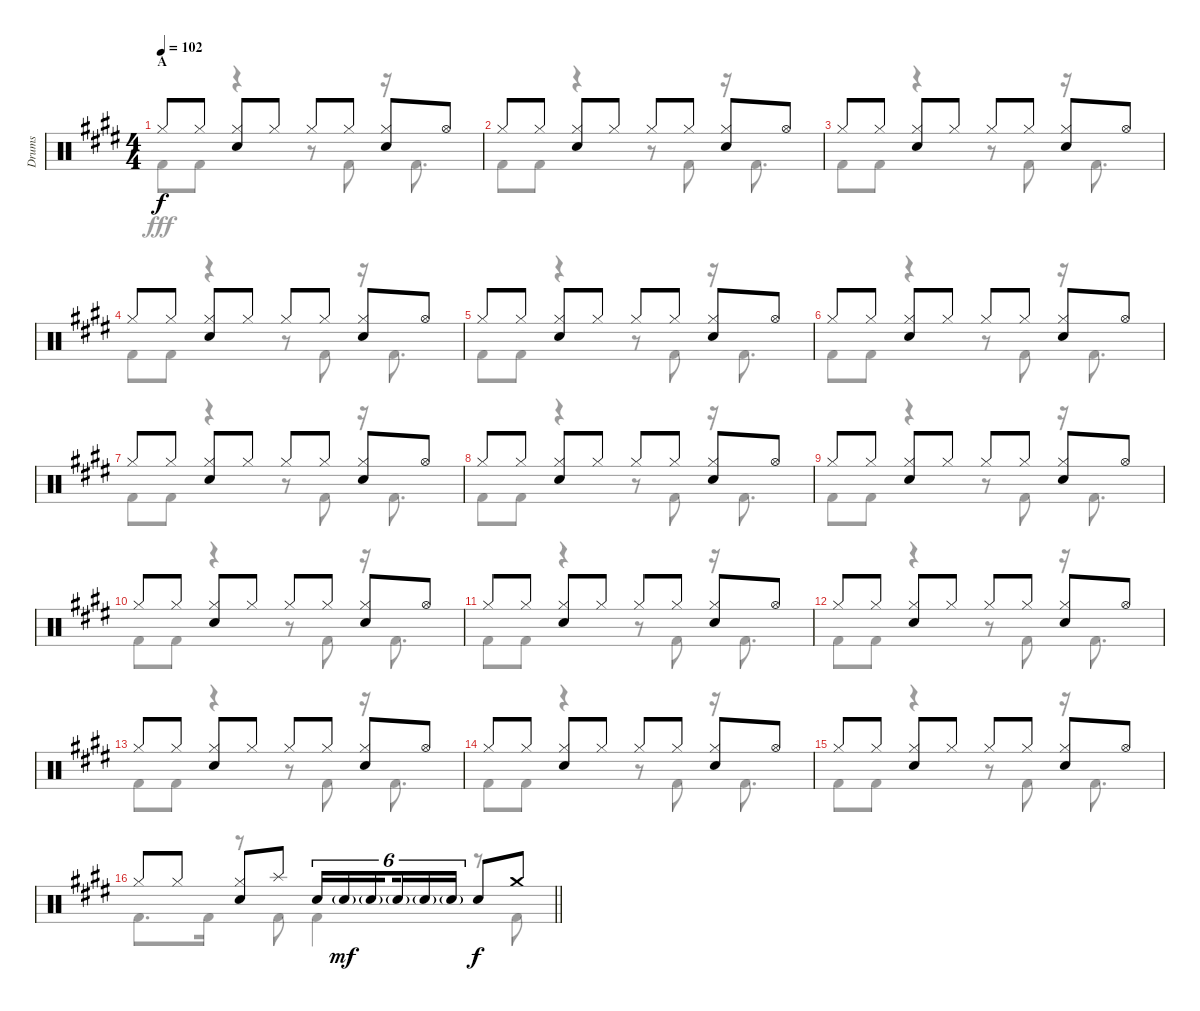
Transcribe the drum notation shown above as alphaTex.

\track ("Drums" "Drums") {instrument percussion}
\staff {score}
\articulation defaults
\voice
\ts (4 4)
\section ("" "A")
\tempo 102
\clef neutral
\ks e "Hi-Hat (closed)".8{dy f} "Hi-Hat (closed)".8
("Hi-Hat (closed)" "Snare (hit) 2").8 "Hi-Hat (closed)".8 "Hi-Hat (closed)".8 "Hi-Hat (closed)".8 ("Hi-Hat (closed)" "Snare (hit) 2").8 "Hi-Hat (open)".8 |
"Hi-Hat (closed)".8 "Hi-Hat (closed)".8 ("Hi-Hat (closed)" "Snare (hit) 2").8 "Hi-Hat (closed)".8 "Hi-Hat (closed)".8 "Hi-Hat (closed)".8 ("Hi-Hat (closed)" "Snare (hit) 2").8 "Hi-Hat (open)".8 |
"Hi-Hat (closed)".8 "Hi-Hat (closed)".8 ("Hi-Hat (closed)" "Snare (hit) 2").8 "Hi-Hat (closed)".8 "Hi-Hat (closed)".8 "Hi-Hat (closed)".8 ("Hi-Hat (closed)" "Snare (hit) 2").8 "Hi-Hat (open)".8 |
"Hi-Hat (closed)".8 "Hi-Hat (closed)".8 ("Hi-Hat (closed)" "Snare (hit) 2").8 "Hi-Hat (closed)".8 "Hi-Hat (closed)".8 "Hi-Hat (closed)".8 ("Hi-Hat (closed)" "Snare (hit) 2").8 "Hi-Hat (open)".8 |
"Hi-Hat (closed)".8 "Hi-Hat (closed)".8 ("Hi-Hat (closed)" "Snare (hit) 2").8 "Hi-Hat (closed)".8 "Hi-Hat (closed)".8 "Hi-Hat (closed)".8 ("Hi-Hat (closed)" "Snare (hit) 2").8 "Hi-Hat (open)".8 |
"Hi-Hat (closed)".8 "Hi-Hat (closed)".8 ("Hi-Hat (closed)" "Snare (hit) 2").8 "Hi-Hat (closed)".8 "Hi-Hat (closed)".8 "Hi-Hat (closed)".8 ("Hi-Hat (closed)" "Snare (hit) 2").8 "Hi-Hat (open)".8 |
"Hi-Hat (closed)".8 "Hi-Hat (closed)".8 ("Hi-Hat (closed)" "Snare (hit) 2").8 "Hi-Hat (closed)".8 "Hi-Hat (closed)".8 "Hi-Hat (closed)".8 ("Hi-Hat (closed)" "Snare (hit) 2").8 "Hi-Hat (open)".8 |
"Hi-Hat (closed)".8 "Hi-Hat (closed)".8 ("Hi-Hat (closed)" "Snare (hit) 2").8 "Hi-Hat (closed)".8 "Hi-Hat (closed)".8 "Hi-Hat (closed)".8 ("Hi-Hat (closed)" "Snare (hit) 2").8 "Hi-Hat (open)".8 |
"Hi-Hat (closed)".8 "Hi-Hat (closed)".8 ("Hi-Hat (closed)" "Snare (hit) 2").8 "Hi-Hat (closed)".8 "Hi-Hat (closed)".8 "Hi-Hat (closed)".8 ("Hi-Hat (closed)" "Snare (hit) 2").8 "Hi-Hat (open)".8 |
"Hi-Hat (closed)".8 "Hi-Hat (closed)".8 ("Hi-Hat (closed)" "Snare (hit) 2").8 "Hi-Hat (closed)".8 "Hi-Hat (closed)".8 "Hi-Hat (closed)".8 ("Hi-Hat (closed)" "Snare (hit) 2").8 "Hi-Hat (open)".8 |
"Hi-Hat (closed)".8 "Hi-Hat (closed)".8 ("Hi-Hat (closed)" "Snare (hit) 2").8 "Hi-Hat (closed)".8 "Hi-Hat (closed)".8 "Hi-Hat (closed)".8 ("Hi-Hat (closed)" "Snare (hit) 2").8 "Hi-Hat (open)".8 |
"Hi-Hat (closed)".8 "Hi-Hat (closed)".8 ("Hi-Hat (closed)" "Snare (hit) 2").8 "Hi-Hat (closed)".8 "Hi-Hat (closed)".8 "Hi-Hat (closed)".8 ("Hi-Hat (closed)" "Snare (hit) 2").8 "Hi-Hat (open)".8 |
"Hi-Hat (closed)".8 "Hi-Hat (closed)".8 ("Hi-Hat (closed)" "Snare (hit) 2").8 "Hi-Hat (closed)".8 "Hi-Hat (closed)".8 "Hi-Hat (closed)".8 ("Hi-Hat (closed)" "Snare (hit) 2").8 "Hi-Hat (open)".8 |
"Hi-Hat (closed)".8 "Hi-Hat (closed)".8 ("Hi-Hat (closed)" "Snare (hit) 2").8 "Hi-Hat (closed)".8 "Hi-Hat (closed)".8 "Hi-Hat (closed)".8 ("Hi-Hat (closed)" "Snare (hit) 2").8 "Hi-Hat (open)".8 |
"Hi-Hat (closed)".8 "Hi-Hat (closed)".8 ("Hi-Hat (closed)" "Snare (hit) 2").8 "Hi-Hat (closed)".8 "Hi-Hat (closed)".8 "Hi-Hat (closed)".8 ("Hi-Hat (closed)" "Snare (hit) 2").8 "Hi-Hat (open)".8 |
\barLineRight lightlight "Hi-Hat (closed)".8 "Hi-Hat (closed)".8
("Hi-Hat (closed)" "Snare (hit) 2").8 "Splash (hit)".8 "Snare (hit) 2".16{tu (6 4)} "Snare (hit) 2"{g}.16{tu (6 4) dy mf} "Snare (hit) 2"{g}.16{tu (6 4) beam splitsecondary} "Snare (hit) 2"{g}.16{tu (6 4)} "Snare (hit) 2"{g}.16{tu (6 4)} "Snare (hit) 2"{g}.16{tu (6 4)} "Snare (hit) 2".8{dy f} "Crash medium (hit)".8
\voice
\clef neutral
\ottava regular
\simile none
\ks e "Kick (hit) 2".8{dy fff} "Kick (hit) 2".8
r.4 r.8 "Kick (hit) 2".8 r.16 "Kick (hit) 2".8{d} |
"Kick (hit) 2".8 "Kick (hit) 2".8 r.4 r.8 "Kick (hit) 2".8 r.16 "Kick (hit) 2".8{d} |
"Kick (hit) 2".8 "Kick (hit) 2".8 r.4 r.8 "Kick (hit) 2".8 r.16 "Kick (hit) 2".8{d} |
"Kick (hit) 2".8 "Kick (hit) 2".8 r.4 r.8 "Kick (hit) 2".8 r.16 "Kick (hit) 2".8{d} |
"Kick (hit) 2".8 "Kick (hit) 2".8 r.4 r.8 "Kick (hit) 2".8 r.16 "Kick (hit) 2".8{d} |
"Kick (hit) 2".8 "Kick (hit) 2".8 r.4 r.8 "Kick (hit) 2".8 r.16 "Kick (hit) 2".8{d} |
"Kick (hit) 2".8 "Kick (hit) 2".8 r.4 r.8 "Kick (hit) 2".8 r.16 "Kick (hit) 2".8{d} |
"Kick (hit) 2".8 "Kick (hit) 2".8 r.4 r.8 "Kick (hit) 2".8 r.16 "Kick (hit) 2".8{d} |
"Kick (hit) 2".8 "Kick (hit) 2".8 r.4 r.8 "Kick (hit) 2".8 r.16 "Kick (hit) 2".8{d} |
"Kick (hit) 2".8 "Kick (hit) 2".8 r.4 r.8 "Kick (hit) 2".8 r.16 "Kick (hit) 2".8{d} |
"Kick (hit) 2".8 "Kick (hit) 2".8 r.4 r.8 "Kick (hit) 2".8 r.16 "Kick (hit) 2".8{d} |
"Kick (hit) 2".8 "Kick (hit) 2".8 r.4 r.8 "Kick (hit) 2".8 r.16 "Kick (hit) 2".8{d} |
"Kick (hit) 2".8 "Kick (hit) 2".8 r.4 r.8 "Kick (hit) 2".8 r.16 "Kick (hit) 2".8{d} |
"Kick (hit) 2".8 "Kick (hit) 2".8 r.4 r.8 "Kick (hit) 2".8 r.16 "Kick (hit) 2".8{d} |
"Kick (hit) 2".8 "Kick (hit) 2".8 r.4 r.8 "Kick (hit) 2".8 r.16 "Kick (hit) 2".8{d} |
\barLineRight lightlight "Kick (hit) 2".8{d} "Kick (hit) 2".16
r.8 "Kick (hit) 2".8 "Kick (hit) 2".4 r.8 "Kick (hit) 2".8
